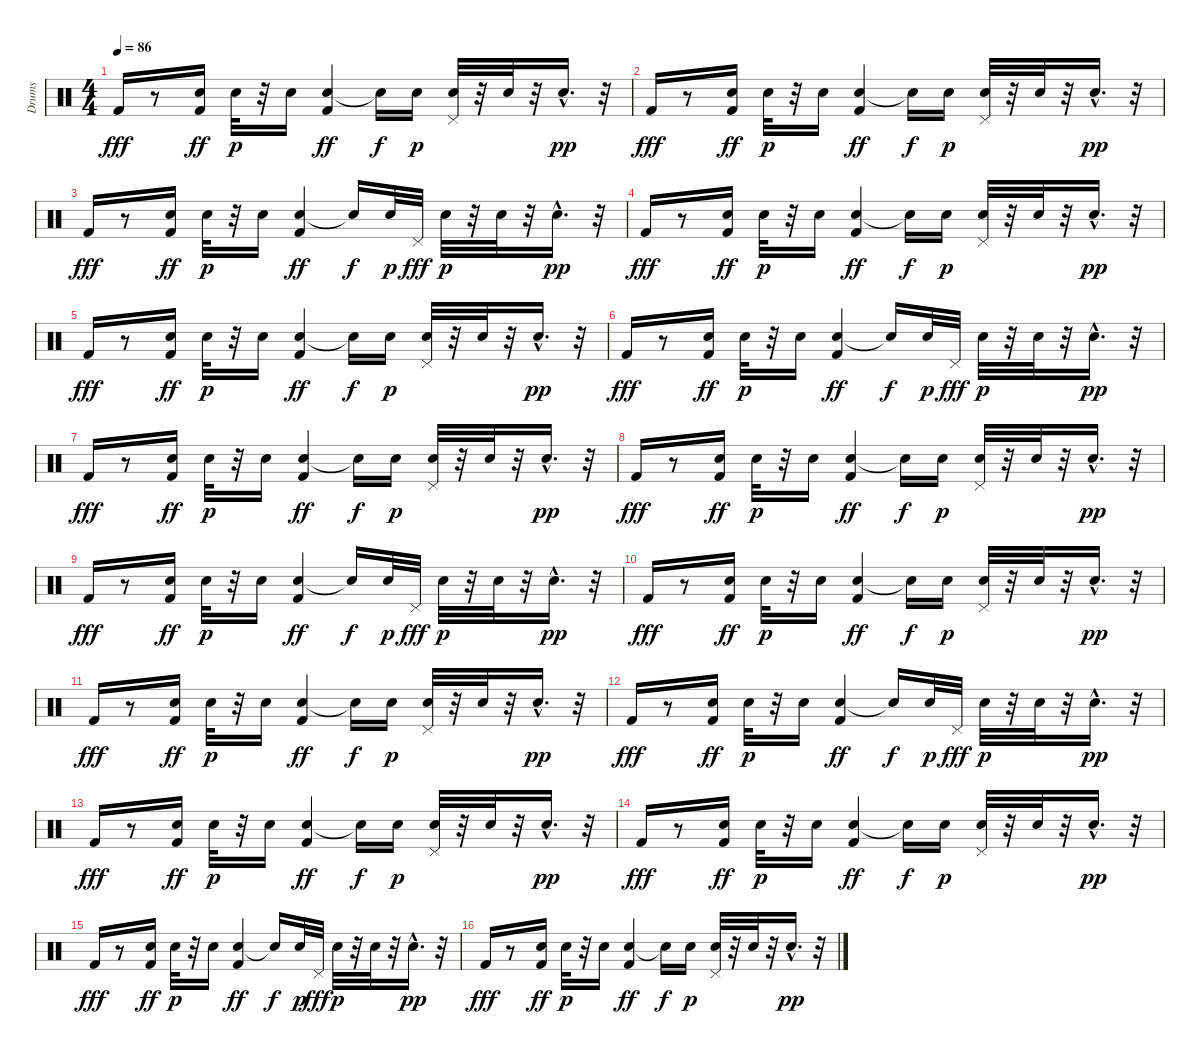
\track ("Drums" "Drums") {instrument percussion}
\staff {score}
\articulation defaults
\ts (4 4)
\tempo 86
\clef neutral
\ks c "Kick (hit) 2".16{dy fff}
r.8 ("Snare (hit) 2" "Kick (hit) 2").16{dy ff} "Snare (hit) 2".32{dy p} r.32 "Snare (hit) 2".16 ("Snare (hit) 2" "Kick (hit) 2").4{dy ff} "Snare (hit)"{t}.16{dy f} "Snare (hit) 2".16{dy p} ("Pedal Hi-Hat (hit)" "Snare (hit) 2").32 r.32 "Snare (hit) 2".32 r.32 "Snare (hit) 2"{hac}.16{d dy pp} r.32 |
"Kick (hit) 2".16{dy fff} r.8 ("Snare (hit) 2" "Kick (hit) 2").16{dy ff} "Snare (hit) 2".32{dy p} r.32 "Snare (hit) 2".16 ("Snare (hit) 2" "Kick (hit) 2").4{dy ff} "Snare (hit)"{t}.16{dy f} "Snare (hit) 2".16{dy p} ("Pedal Hi-Hat (hit)" "Snare (hit) 2").32 r.32 "Snare (hit) 2".32 r.32 "Snare (hit) 2"{hac}.16{d dy pp} r.32 |
"Kick (hit) 2".16{dy fff} r.8 ("Snare (hit) 2" "Kick (hit) 2").16{dy ff} "Snare (hit) 2".32{dy p} r.32 "Snare (hit) 2".16 ("Snare (hit) 2" "Kick (hit) 2").4{dy ff} "Snare (hit)"{t}.16{dy f} "Snare (hit) 2".32{dy p} "Pedal Hi-Hat (hit)".32{dy fff} "Snare (hit) 2".32{dy p} r.32 "Snare (hit) 2".32 r.32 "Snare (hit) 2"{hac}.16{d dy pp} r.32 |
"Kick (hit) 2".16{dy fff} r.8 ("Snare (hit) 2" "Kick (hit) 2").16{dy ff} "Snare (hit) 2".32{dy p} r.32 "Snare (hit) 2".16 ("Snare (hit) 2" "Kick (hit) 2").4{dy ff} "Snare (hit)"{t}.16{dy f} "Snare (hit) 2".16{dy p} ("Pedal Hi-Hat (hit)" "Snare (hit) 2").32 r.32 "Snare (hit) 2".32 r.32 "Snare (hit) 2"{hac}.16{d dy pp} r.32 |
"Kick (hit) 2".16{dy fff} r.8 ("Snare (hit) 2" "Kick (hit) 2").16{dy ff} "Snare (hit) 2".32{dy p} r.32 "Snare (hit) 2".16 ("Snare (hit) 2" "Kick (hit) 2").4{dy ff} "Snare (hit)"{t}.16{dy f} "Snare (hit) 2".16{dy p} ("Pedal Hi-Hat (hit)" "Snare (hit) 2").32 r.32 "Snare (hit) 2".32 r.32 "Snare (hit) 2"{hac}.16{d dy pp} r.32 |
"Kick (hit) 2".16{dy fff} r.8 ("Snare (hit) 2" "Kick (hit) 2").16{dy ff} "Snare (hit) 2".32{dy p} r.32 "Snare (hit) 2".16 ("Snare (hit) 2" "Kick (hit) 2").4{dy ff} "Snare (hit)"{t}.16{dy f} "Snare (hit) 2".32{dy p} "Pedal Hi-Hat (hit)".32{dy fff} "Snare (hit) 2".32{dy p} r.32 "Snare (hit) 2".32 r.32 "Snare (hit) 2"{hac}.16{d dy pp} r.32 |
"Kick (hit) 2".16{dy fff} r.8 ("Snare (hit) 2" "Kick (hit) 2").16{dy ff} "Snare (hit) 2".32{dy p} r.32 "Snare (hit) 2".16 ("Snare (hit) 2" "Kick (hit) 2").4{dy ff} "Snare (hit)"{t}.16{dy f} "Snare (hit) 2".16{dy p} ("Pedal Hi-Hat (hit)" "Snare (hit) 2").32 r.32 "Snare (hit) 2".32 r.32 "Snare (hit) 2"{hac}.16{d dy pp} r.32 |
"Kick (hit) 2".16{dy fff} r.8 ("Snare (hit) 2" "Kick (hit) 2").16{dy ff} "Snare (hit) 2".32{dy p} r.32 "Snare (hit) 2".16 ("Snare (hit) 2" "Kick (hit) 2").4{dy ff} "Snare (hit)"{t}.16{dy f} "Snare (hit) 2".16{dy p} ("Pedal Hi-Hat (hit)" "Snare (hit) 2").32 r.32 "Snare (hit) 2".32 r.32 "Snare (hit) 2"{hac}.16{d dy pp} r.32 |
"Kick (hit) 2".16{dy fff} r.8 ("Snare (hit) 2" "Kick (hit) 2").16{dy ff} "Snare (hit) 2".32{dy p} r.32 "Snare (hit) 2".16 ("Snare (hit) 2" "Kick (hit) 2").4{dy ff} "Snare (hit)"{t}.16{dy f} "Snare (hit) 2".32{dy p} "Pedal Hi-Hat (hit)".32{dy fff} "Snare (hit) 2".32{dy p} r.32 "Snare (hit) 2".32 r.32 "Snare (hit) 2"{hac}.16{d dy pp} r.32 |
"Kick (hit) 2".16{dy fff} r.8 ("Snare (hit) 2" "Kick (hit) 2").16{dy ff} "Snare (hit) 2".32{dy p} r.32 "Snare (hit) 2".16 ("Snare (hit) 2" "Kick (hit) 2").4{dy ff} "Snare (hit)"{t}.16{dy f} "Snare (hit) 2".16{dy p} ("Pedal Hi-Hat (hit)" "Snare (hit) 2").32 r.32 "Snare (hit) 2".32 r.32 "Snare (hit) 2"{hac}.16{d dy pp} r.32 |
"Kick (hit) 2".16{dy fff} r.8 ("Snare (hit) 2" "Kick (hit) 2").16{dy ff} "Snare (hit) 2".32{dy p} r.32 "Snare (hit) 2".16 ("Snare (hit) 2" "Kick (hit) 2").4{dy ff} "Snare (hit)"{t}.16{dy f} "Snare (hit) 2".16{dy p} ("Pedal Hi-Hat (hit)" "Snare (hit) 2").32 r.32 "Snare (hit) 2".32 r.32 "Snare (hit) 2"{hac}.16{d dy pp} r.32 |
"Kick (hit) 2".16{dy fff} r.8 ("Snare (hit) 2" "Kick (hit) 2").16{dy ff} "Snare (hit) 2".32{dy p} r.32 "Snare (hit) 2".16 ("Snare (hit) 2" "Kick (hit) 2").4{dy ff} "Snare (hit)"{t}.16{dy f} "Snare (hit) 2".32{dy p} "Pedal Hi-Hat (hit)".32{dy fff} "Snare (hit) 2".32{dy p} r.32 "Snare (hit) 2".32 r.32 "Snare (hit) 2"{hac}.16{d dy pp} r.32 |
"Kick (hit) 2".16{dy fff} r.8 ("Snare (hit) 2" "Kick (hit) 2").16{dy ff} "Snare (hit) 2".32{dy p} r.32 "Snare (hit) 2".16 ("Snare (hit) 2" "Kick (hit) 2").4{dy ff} "Snare (hit)"{t}.16{dy f} "Snare (hit) 2".16{dy p} ("Pedal Hi-Hat (hit)" "Snare (hit) 2").32 r.32 "Snare (hit) 2".32 r.32 "Snare (hit) 2"{hac}.16{d dy pp} r.32 |
"Kick (hit) 2".16{dy fff} r.8 ("Snare (hit) 2" "Kick (hit) 2").16{dy ff} "Snare (hit) 2".32{dy p} r.32 "Snare (hit) 2".16 ("Snare (hit) 2" "Kick (hit) 2").4{dy ff} "Snare (hit)"{t}.16{dy f} "Snare (hit) 2".16{dy p} ("Pedal Hi-Hat (hit)" "Snare (hit) 2").32 r.32 "Snare (hit) 2".32 r.32 "Snare (hit) 2"{hac}.16{d dy pp} r.32 |
"Kick (hit) 2".16{dy fff} r.8 ("Snare (hit) 2" "Kick (hit) 2").16{dy ff} "Snare (hit) 2".32{dy p} r.32 "Snare (hit) 2".16 ("Snare (hit) 2" "Kick (hit) 2").4{dy ff} "Snare (hit)"{t}.16{dy f} "Snare (hit) 2".32{dy p} "Pedal Hi-Hat (hit)".32{dy fff} "Snare (hit) 2".32{dy p} r.32 "Snare (hit) 2".32 r.32 "Snare (hit) 2"{hac}.16{d dy pp} r.32 |
"Kick (hit) 2".16{dy fff} r.8 ("Snare (hit) 2" "Kick (hit) 2").16{dy ff} "Snare (hit) 2".32{dy p} r.32 "Snare (hit) 2".16 ("Snare (hit) 2" "Kick (hit) 2").4{dy ff} "Snare (hit)"{t}.16{dy f} "Snare (hit) 2".16{dy p} ("Pedal Hi-Hat (hit)" "Snare (hit) 2").32 r.32 "Snare (hit) 2".32 r.32 "Snare (hit) 2"{hac}.16{d dy pp} r.32
